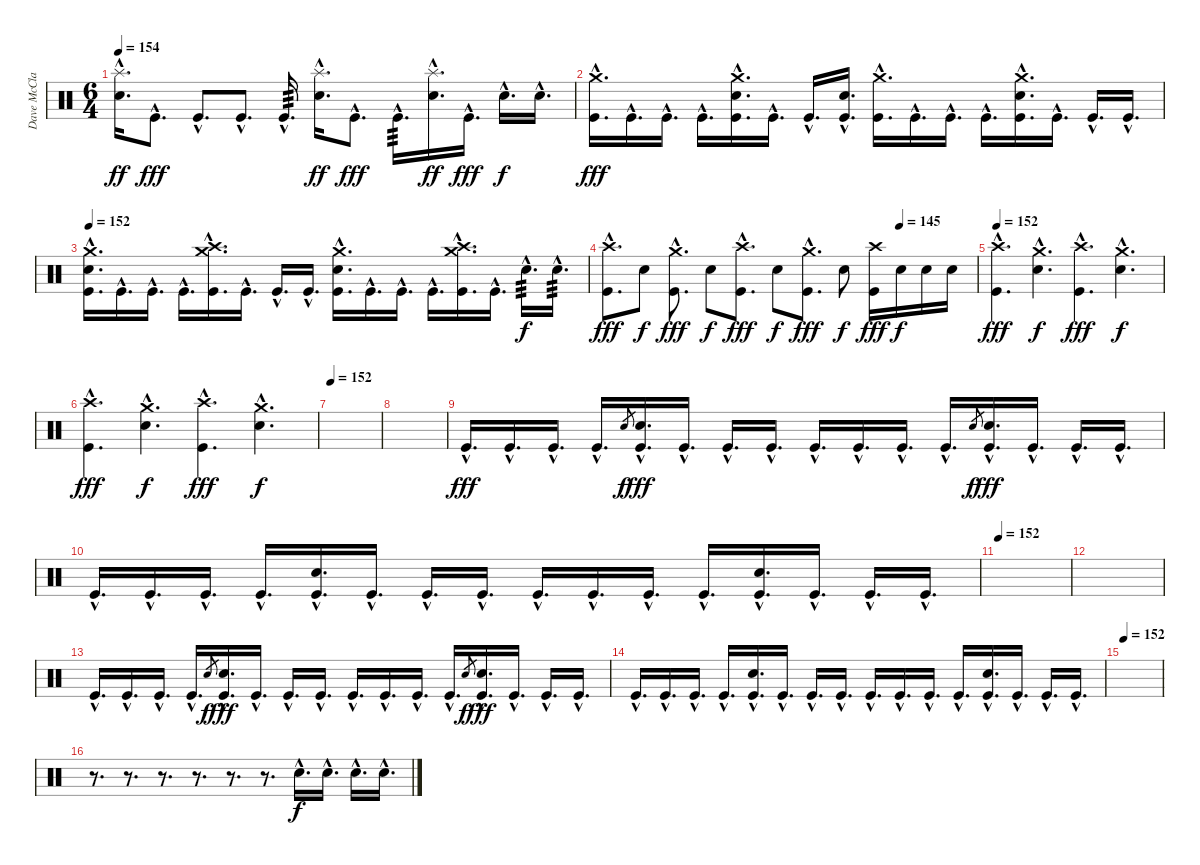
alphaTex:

\track ("Dave McClain" "Dave McCla") {instrument percussion}
\staff {score}
\articulation defaults
\ts (6 4)
\tempo 154
\clef neutral
\ks c
("Splash (hit)"{hac} "Electric Snare (hit)"{hac}).16{d dy ff} "Kick (hit)"{hac}.8{d dy fff} "Kick (hit)"{hac}.8{d} "Kick (hit)"{hac}.8{d} "Kick (hit)"{hac}.16{d tp 3} ("Splash (hit)"{hac} "Electric Snare (hit)"{hac}).16{d dy ff} "Kick (hit)"{hac}.8{d dy fff} "Kick (hit)"{hac}.16{d tp 3} ("Splash (hit)"{hac} "Electric Snare (hit)"{hac}).16{d dy ff} "Kick (hit)"{hac}.16{d dy fff} "Electric Snare (hit)"{hac}.16{d dy f} "Electric Snare (hit)"{hac}.16{d} |
("Crash medium (hit)"{hac} "Kick (hit)"{hac}).16{d dy fff} "Kick (hit)"{hac}.16{d} "Kick (hit)"{hac}.16{d} "Kick (hit)"{hac}.16{d} ("Crash medium (hit)"{hac} "Electric Snare (hit)"{hac} "Kick (hit)"{hac}).16{d} "Kick (hit)"{hac}.16{d} "Kick (hit)"{hac}.16{d} ("Electric Snare (hit)"{hac} "Kick (hit)"{hac}).16{d} ("Crash medium (hit)"{hac} "Kick (hit)"{hac}).16{d} "Kick (hit)"{hac}.16{d} "Kick (hit)"{hac}.16{d} "Kick (hit)"{hac}.16{d} ("Crash medium (hit)"{hac} "Electric Snare (hit)"{hac} "Kick (hit)"{hac}).16{d} "Kick (hit)"{hac}.16{d} "Kick (hit)"{hac}.16{d} "Kick (hit)"{hac}.16{d} |
\tempo 152
("Crash medium (hit)"{hac} "Electric Snare (hit)"{hac} "Kick (hit)"{hac}).16{d} "Kick (hit)"{hac}.16{d} "Kick (hit)"{hac}.16{d} "Kick (hit)"{hac}.16{d} ("Crash medium (hit)"{hac} "Crash high (hit)"{hac} "Kick (hit)"{hac}).16{d} "Kick (hit)"{hac}.16{d} "Kick (hit)"{hac}.16{d} "Kick (hit)"{hac}.16{d} ("Crash medium (hit)"{hac} "Electric Snare (hit)"{hac} "Kick (hit)"{hac}).16{d} "Kick (hit)"{hac}.16{d} "Kick (hit)"{hac}.16{d} "Kick (hit)"{hac}.16{d} ("Crash medium (hit)"{hac} "Crash high (hit)"{hac} "Kick (hit)"{hac}).16{d} "Kick (hit)"{hac}.16{d} "Electric Snare (hit)"{hac}.16{d tp 3 dy f} "Electric Snare (hit)"{hac}.16{d tp 3} |
\tempo (145 0.7916666666666666)
("Crash high (hit)"{hac} "Kick (hit)"{hac}).8{d dy fff} "Electric Snare (hit)".8{dy f} ("Crash medium (hit)"{hac} "Kick (hit)"{hac}).8{d dy fff} "Electric Snare (hit)".8{dy f} ("Crash high (hit)"{hac} "Kick (hit)"{hac}).8{d dy fff} "Electric Snare (hit)".8{dy f} ("Crash medium (hit)"{hac} "Kick (hit)"{hac}).8{d dy fff} "Electric Snare (hit)".8{dy f} ("Crash high (hit)" "Kick (hit)").16{dy fff} "Electric Snare (hit)".16{dy f} "Electric Snare (hit)".16 "Electric Snare (hit)".16 |
\tempo 152
("Crash high (hit)"{hac} "Kick (hit)"{hac}).4{d dy fff} ("Crash medium (hit)"{hac} "Electric Snare (hit)"{hac}).4{d dy f} ("Crash high (hit)"{hac} "Kick (hit)"{hac}).4{d dy fff} ("Crash medium (hit)"{hac} "Electric Snare (hit)"{hac}).4{d dy f} |
("Crash high (hit)"{hac} "Kick (hit)"{hac}).4{d dy fff} ("Crash medium (hit)"{hac} "Electric Snare (hit)"{hac}).4{d dy f} ("Crash high (hit)"{hac} "Kick (hit)"{hac}).4{d dy fff} ("Crash medium (hit)"{hac} "Electric Snare (hit)"{hac}).4{d dy f} |
\tempo 152
|
|
"Kick (hit)"{hac}.16{d dy fff} "Kick (hit)"{hac}.16{d} "Kick (hit)"{hac}.16{d} "Kick (hit)"{hac}.16{d} "Electric Snare (hit)".8{gr dy f} ("Electric Snare (hit)"{hac} "Kick (hit)"{hac}).16{d dy fff} "Kick (hit)"{hac}.16{d} "Kick (hit)"{hac}.16{d} "Kick (hit)"{hac}.16{d} "Kick (hit)"{hac}.16{d} "Kick (hit)"{hac}.16{d} "Kick (hit)"{hac}.16{d} "Kick (hit)"{hac}.16{d} "Electric Snare (hit)".8{gr dy f} ("Electric Snare (hit)"{hac} "Kick (hit)"{hac}).16{d dy fff} "Kick (hit)"{hac}.16{d} "Kick (hit)"{hac}.16{d} "Kick (hit)"{hac}.16{d} |
"Kick (hit)"{hac}.16{d} "Kick (hit)"{hac}.16{d} "Kick (hit)"{hac}.16{d} "Kick (hit)"{hac}.16{d} ("Electric Snare (hit)"{hac} "Kick (hit)"{hac}).16{d} "Kick (hit)"{hac}.16{d} "Kick (hit)"{hac}.16{d} "Kick (hit)"{hac}.16{d} "Kick (hit)"{hac}.16{d} "Kick (hit)"{hac}.16{d} "Kick (hit)"{hac}.16{d} "Kick (hit)"{hac}.16{d} ("Electric Snare (hit)"{hac} "Kick (hit)"{hac}).16{d} "Kick (hit)"{hac}.16{d} "Kick (hit)"{hac}.16{d} "Kick (hit)"{hac}.16{d} |
\tempo 152
|
|
"Kick (hit)"{hac}.16{d} "Kick (hit)"{hac}.16{d} "Kick (hit)"{hac}.16{d} "Kick (hit)"{hac}.16{d} "Electric Snare (hit)".8{gr dy f} ("Electric Snare (hit)"{hac} "Kick (hit)"{hac}).16{d dy fff} "Kick (hit)"{hac}.16{d} "Kick (hit)"{hac}.16{d} "Kick (hit)"{hac}.16{d} "Kick (hit)"{hac}.16{d} "Kick (hit)"{hac}.16{d} "Kick (hit)"{hac}.16{d} "Kick (hit)"{hac}.16{d} "Electric Snare (hit)".8{gr dy f} ("Electric Snare (hit)"{hac} "Kick (hit)"{hac}).16{d dy fff} "Kick (hit)"{hac}.16{d} "Kick (hit)"{hac}.16{d} "Kick (hit)"{hac}.16{d} |
"Kick (hit)"{hac}.16{d} "Kick (hit)"{hac}.16{d} "Kick (hit)"{hac}.16{d} "Kick (hit)"{hac}.16{d} ("Electric Snare (hit)"{hac} "Kick (hit)"{hac}).16{d} "Kick (hit)"{hac}.16{d} "Kick (hit)"{hac}.16{d} "Kick (hit)"{hac}.16{d} "Kick (hit)"{hac}.16{d} "Kick (hit)"{hac}.16{d} "Kick (hit)"{hac}.16{d} "Kick (hit)"{hac}.16{d} ("Electric Snare (hit)"{hac} "Kick (hit)"{hac}).16{d} "Kick (hit)"{hac}.16{d} "Kick (hit)"{hac}.16{d} "Kick (hit)"{hac}.16{d} |
\tempo 152
|
r.8{d} r.8{d} r.8{d} r.8{d} r.8{d} r.8{d} "Electric Snare (hit)"{hac}.16{d dy f} "Electric Snare (hit)"{hac}.16{d} "Electric Snare (hit)"{hac}.16{d} "Electric Snare (hit)"{hac}.16{d}
